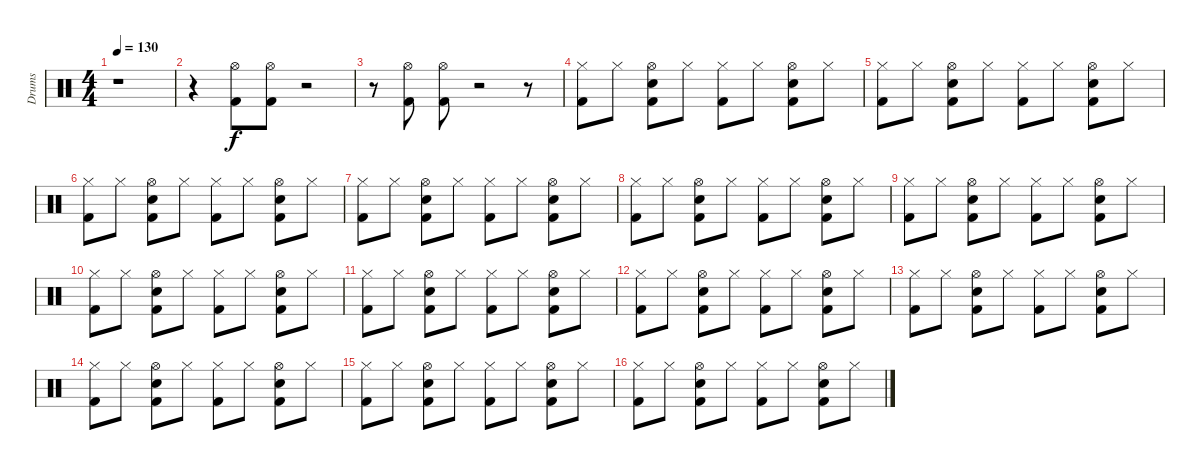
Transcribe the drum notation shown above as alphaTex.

\track ("Drums" "Drums") {instrument percussion}
\staff {score}
\articulation defaults
\ts (4 4)
\tempo 130
\clef neutral
\ks c
r.1{dy f} |
r.4 ("Hi-Hat (open)" "Kick (hit) 2").8 ("Hi-Hat (open)" "Kick (hit) 2").8 r.2 |
r.8 ("Hi-Hat (open)" "Kick (hit) 2").8 ("Hi-Hat (open)" "Kick (hit) 2").8 r.2 r.8 |
("Hi-Hat (closed)" "Kick (hit) 2").8 "Hi-Hat (closed)".8 ("Hi-Hat (open)" "Electric Snare (hit)" "Kick (hit) 2").8 "Hi-Hat (closed)".8 ("Hi-Hat (closed)" "Kick (hit) 2").8 "Hi-Hat (closed)".8 ("Hi-Hat (open)" "Electric Snare (hit)" "Kick (hit) 2").8 "Hi-Hat (closed)".8 |
("Hi-Hat (closed)" "Kick (hit) 2").8 "Hi-Hat (closed)".8 ("Hi-Hat (open)" "Electric Snare (hit)" "Kick (hit) 2").8 "Hi-Hat (closed)".8 ("Hi-Hat (closed)" "Kick (hit) 2").8 "Hi-Hat (closed)".8 ("Hi-Hat (open)" "Electric Snare (hit)" "Kick (hit) 2").8 "Hi-Hat (closed)".8 |
("Hi-Hat (closed)" "Kick (hit) 2").8 "Hi-Hat (closed)".8 ("Hi-Hat (open)" "Electric Snare (hit)" "Kick (hit) 2").8 "Hi-Hat (closed)".8 ("Hi-Hat (closed)" "Kick (hit) 2").8 "Hi-Hat (closed)".8 ("Hi-Hat (open)" "Electric Snare (hit)" "Kick (hit) 2").8 "Hi-Hat (closed)".8 |
("Hi-Hat (closed)" "Kick (hit) 2").8 "Hi-Hat (closed)".8 ("Hi-Hat (open)" "Electric Snare (hit)" "Kick (hit) 2").8 "Hi-Hat (closed)".8 ("Hi-Hat (closed)" "Kick (hit) 2").8 "Hi-Hat (closed)".8 ("Hi-Hat (open)" "Electric Snare (hit)" "Kick (hit) 2").8 "Hi-Hat (closed)".8 |
("Hi-Hat (closed)" "Kick (hit) 2").8 "Hi-Hat (closed)".8 ("Hi-Hat (open)" "Electric Snare (hit)" "Kick (hit) 2").8 "Hi-Hat (closed)".8 ("Hi-Hat (closed)" "Kick (hit) 2").8 "Hi-Hat (closed)".8 ("Hi-Hat (open)" "Electric Snare (hit)" "Kick (hit) 2").8 "Hi-Hat (closed)".8 |
("Hi-Hat (closed)" "Kick (hit) 2").8 "Hi-Hat (closed)".8 ("Hi-Hat (open)" "Electric Snare (hit)" "Kick (hit) 2").8 "Hi-Hat (closed)".8 ("Hi-Hat (closed)" "Kick (hit) 2").8 "Hi-Hat (closed)".8 ("Hi-Hat (open)" "Electric Snare (hit)" "Kick (hit) 2").8 "Hi-Hat (closed)".8 |
("Hi-Hat (closed)" "Kick (hit) 2").8 "Hi-Hat (closed)".8 ("Hi-Hat (open)" "Electric Snare (hit)" "Kick (hit) 2").8 "Hi-Hat (closed)".8 ("Hi-Hat (closed)" "Kick (hit) 2").8 "Hi-Hat (closed)".8 ("Hi-Hat (open)" "Electric Snare (hit)" "Kick (hit) 2").8 "Hi-Hat (closed)".8 |
("Hi-Hat (closed)" "Kick (hit) 2").8 "Hi-Hat (closed)".8 ("Hi-Hat (open)" "Electric Snare (hit)" "Kick (hit) 2").8 "Hi-Hat (closed)".8 ("Hi-Hat (closed)" "Kick (hit) 2").8 "Hi-Hat (closed)".8 ("Hi-Hat (open)" "Electric Snare (hit)" "Kick (hit) 2").8 "Hi-Hat (closed)".8 |
("Hi-Hat (closed)" "Kick (hit) 2").8 "Hi-Hat (closed)".8 ("Hi-Hat (open)" "Electric Snare (hit)" "Kick (hit) 2").8 "Hi-Hat (closed)".8 ("Hi-Hat (closed)" "Kick (hit) 2").8 "Hi-Hat (closed)".8 ("Hi-Hat (open)" "Electric Snare (hit)" "Kick (hit) 2").8 "Hi-Hat (closed)".8 |
("Hi-Hat (closed)" "Kick (hit) 2").8 "Hi-Hat (closed)".8 ("Hi-Hat (open)" "Electric Snare (hit)" "Kick (hit) 2").8 "Hi-Hat (closed)".8 ("Hi-Hat (closed)" "Kick (hit) 2").8 "Hi-Hat (closed)".8 ("Hi-Hat (open)" "Electric Snare (hit)" "Kick (hit) 2").8 "Hi-Hat (closed)".8 |
("Hi-Hat (closed)" "Kick (hit) 2").8 "Hi-Hat (closed)".8 ("Hi-Hat (open)" "Electric Snare (hit)" "Kick (hit) 2").8 "Hi-Hat (closed)".8 ("Hi-Hat (closed)" "Kick (hit) 2").8 "Hi-Hat (closed)".8 ("Hi-Hat (open)" "Electric Snare (hit)" "Kick (hit) 2").8 "Hi-Hat (closed)".8 |
("Hi-Hat (closed)" "Kick (hit) 2").8 "Hi-Hat (closed)".8 ("Hi-Hat (open)" "Electric Snare (hit)" "Kick (hit) 2").8 "Hi-Hat (closed)".8 ("Hi-Hat (closed)" "Kick (hit) 2").8 "Hi-Hat (closed)".8 ("Hi-Hat (open)" "Electric Snare (hit)" "Kick (hit) 2").8 "Hi-Hat (closed)".8 |
("Hi-Hat (closed)" "Kick (hit) 2").8 "Hi-Hat (closed)".8 ("Hi-Hat (open)" "Electric Snare (hit)" "Kick (hit) 2").8 "Hi-Hat (closed)".8 ("Hi-Hat (closed)" "Kick (hit) 2").8 "Hi-Hat (closed)".8 ("Hi-Hat (open)" "Electric Snare (hit)" "Kick (hit) 2").8 "Hi-Hat (closed)".8
